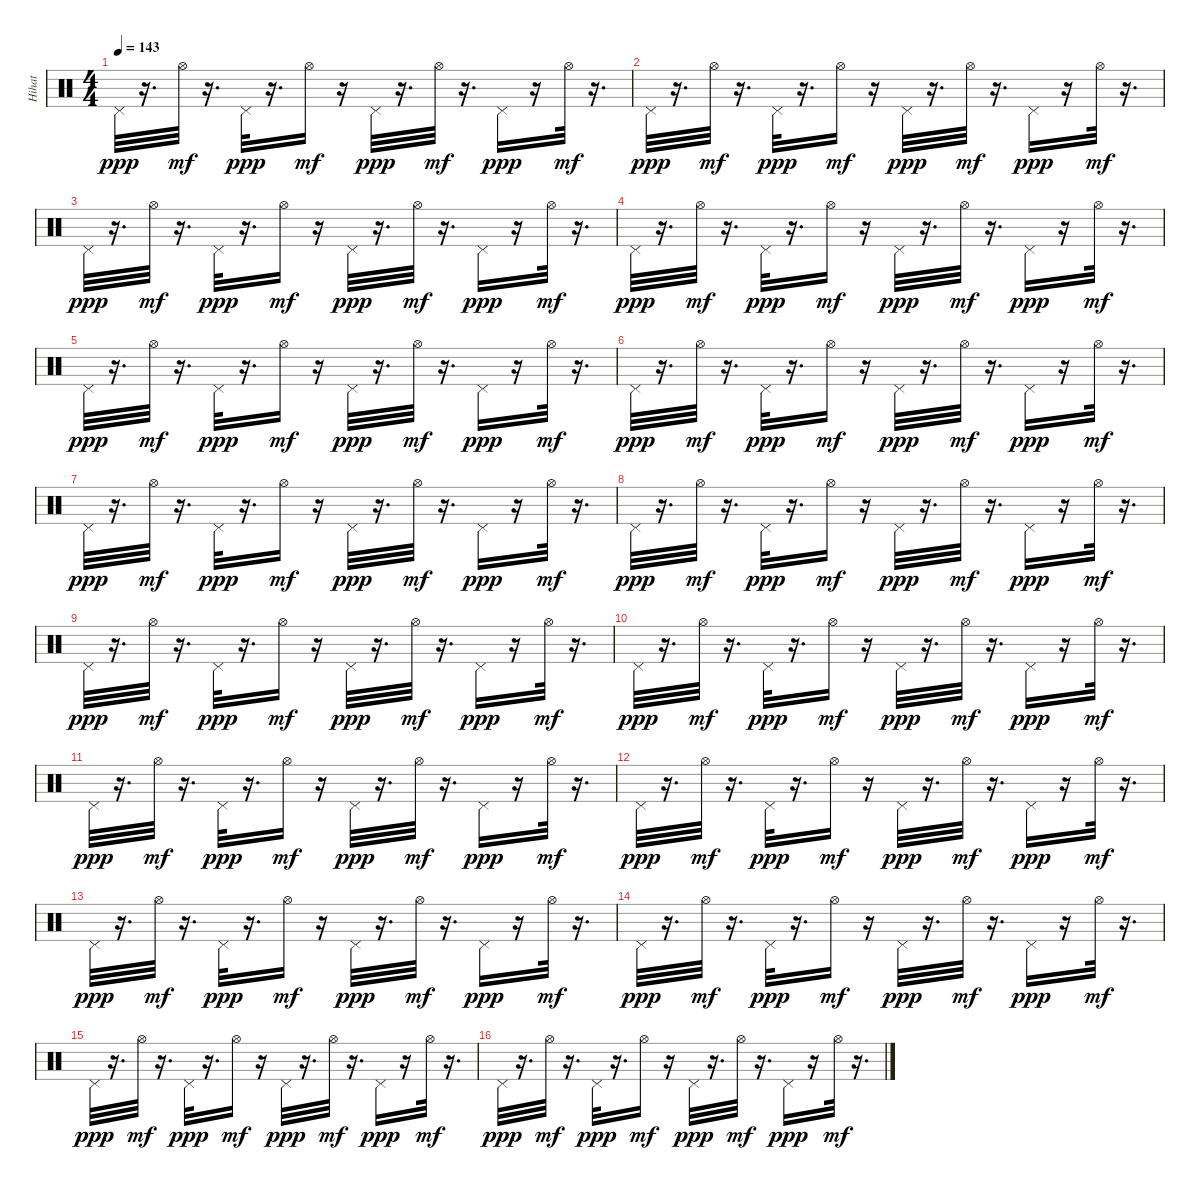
\track ("Hihat    " "Hihat    ") {instrument percussion}
\staff {score}
\articulation defaults
\ts (4 4)
\tempo 143
\clef neutral
\ks c "Pedal Hi-Hat (hit)".32{dy ppp}
r.16{d} "Hi-Hat (open)".32{dy mf} r.16{d} "Pedal Hi-Hat (hit)".32{dy ppp} r.16{d} "Hi-Hat (open)".16{dy mf} r.16 "Pedal Hi-Hat (hit)".32{dy ppp} r.16{d} "Hi-Hat (open)".32{dy mf} r.16{d} "Pedal Hi-Hat (hit)".16{dy ppp} r.16 "Hi-Hat (open)".32{dy mf} r.16{d} |
"Pedal Hi-Hat (hit)".32{dy ppp} r.16{d} "Hi-Hat (open)".32{dy mf} r.16{d} "Pedal Hi-Hat (hit)".32{dy ppp} r.16{d} "Hi-Hat (open)".16{dy mf} r.16 "Pedal Hi-Hat (hit)".32{dy ppp} r.16{d} "Hi-Hat (open)".32{dy mf} r.16{d} "Pedal Hi-Hat (hit)".16{dy ppp} r.16 "Hi-Hat (open)".32{dy mf} r.16{d} |
"Pedal Hi-Hat (hit)".32{dy ppp} r.16{d} "Hi-Hat (open)".32{dy mf} r.16{d} "Pedal Hi-Hat (hit)".32{dy ppp} r.16{d} "Hi-Hat (open)".16{dy mf} r.16 "Pedal Hi-Hat (hit)".32{dy ppp} r.16{d} "Hi-Hat (open)".32{dy mf} r.16{d} "Pedal Hi-Hat (hit)".16{dy ppp} r.16 "Hi-Hat (open)".32{dy mf} r.16{d} |
"Pedal Hi-Hat (hit)".32{dy ppp} r.16{d} "Hi-Hat (open)".32{dy mf} r.16{d} "Pedal Hi-Hat (hit)".32{dy ppp} r.16{d} "Hi-Hat (open)".16{dy mf} r.16 "Pedal Hi-Hat (hit)".32{dy ppp} r.16{d} "Hi-Hat (open)".32{dy mf} r.16{d} "Pedal Hi-Hat (hit)".16{dy ppp} r.16 "Hi-Hat (open)".32{dy mf} r.16{d} |
"Pedal Hi-Hat (hit)".32{dy ppp} r.16{d} "Hi-Hat (open)".32{dy mf} r.16{d} "Pedal Hi-Hat (hit)".32{dy ppp} r.16{d} "Hi-Hat (open)".16{dy mf} r.16 "Pedal Hi-Hat (hit)".32{dy ppp} r.16{d} "Hi-Hat (open)".32{dy mf} r.16{d} "Pedal Hi-Hat (hit)".16{dy ppp} r.16 "Hi-Hat (open)".32{dy mf} r.16{d} |
"Pedal Hi-Hat (hit)".32{dy ppp} r.16{d} "Hi-Hat (open)".32{dy mf} r.16{d} "Pedal Hi-Hat (hit)".32{dy ppp} r.16{d} "Hi-Hat (open)".16{dy mf} r.16 "Pedal Hi-Hat (hit)".32{dy ppp} r.16{d} "Hi-Hat (open)".32{dy mf} r.16{d} "Pedal Hi-Hat (hit)".16{dy ppp} r.16 "Hi-Hat (open)".32{dy mf} r.16{d} |
"Pedal Hi-Hat (hit)".32{dy ppp} r.16{d} "Hi-Hat (open)".32{dy mf} r.16{d} "Pedal Hi-Hat (hit)".32{dy ppp} r.16{d} "Hi-Hat (open)".16{dy mf} r.16 "Pedal Hi-Hat (hit)".32{dy ppp} r.16{d} "Hi-Hat (open)".32{dy mf} r.16{d} "Pedal Hi-Hat (hit)".16{dy ppp} r.16 "Hi-Hat (open)".32{dy mf} r.16{d} |
"Pedal Hi-Hat (hit)".32{dy ppp} r.16{d} "Hi-Hat (open)".32{dy mf} r.16{d} "Pedal Hi-Hat (hit)".32{dy ppp} r.16{d} "Hi-Hat (open)".16{dy mf} r.16 "Pedal Hi-Hat (hit)".32{dy ppp} r.16{d} "Hi-Hat (open)".32{dy mf} r.16{d} "Pedal Hi-Hat (hit)".16{dy ppp} r.16 "Hi-Hat (open)".32{dy mf} r.16{d} |
"Pedal Hi-Hat (hit)".32{dy ppp} r.16{d} "Hi-Hat (open)".32{dy mf} r.16{d} "Pedal Hi-Hat (hit)".32{dy ppp} r.16{d} "Hi-Hat (open)".16{dy mf} r.16 "Pedal Hi-Hat (hit)".32{dy ppp} r.16{d} "Hi-Hat (open)".32{dy mf} r.16{d} "Pedal Hi-Hat (hit)".16{dy ppp} r.16 "Hi-Hat (open)".32{dy mf} r.16{d} |
"Pedal Hi-Hat (hit)".32{dy ppp} r.16{d} "Hi-Hat (open)".32{dy mf} r.16{d} "Pedal Hi-Hat (hit)".32{dy ppp} r.16{d} "Hi-Hat (open)".16{dy mf} r.16 "Pedal Hi-Hat (hit)".32{dy ppp} r.16{d} "Hi-Hat (open)".32{dy mf} r.16{d} "Pedal Hi-Hat (hit)".16{dy ppp} r.16 "Hi-Hat (open)".32{dy mf} r.16{d} |
"Pedal Hi-Hat (hit)".32{dy ppp} r.16{d} "Hi-Hat (open)".32{dy mf} r.16{d} "Pedal Hi-Hat (hit)".32{dy ppp} r.16{d} "Hi-Hat (open)".16{dy mf} r.16 "Pedal Hi-Hat (hit)".32{dy ppp} r.16{d} "Hi-Hat (open)".32{dy mf} r.16{d} "Pedal Hi-Hat (hit)".16{dy ppp} r.16 "Hi-Hat (open)".32{dy mf} r.16{d} |
"Pedal Hi-Hat (hit)".32{dy ppp} r.16{d} "Hi-Hat (open)".32{dy mf} r.16{d} "Pedal Hi-Hat (hit)".32{dy ppp} r.16{d} "Hi-Hat (open)".16{dy mf} r.16 "Pedal Hi-Hat (hit)".32{dy ppp} r.16{d} "Hi-Hat (open)".32{dy mf} r.16{d} "Pedal Hi-Hat (hit)".16{dy ppp} r.16 "Hi-Hat (open)".32{dy mf} r.16{d} |
"Pedal Hi-Hat (hit)".32{dy ppp} r.16{d} "Hi-Hat (open)".32{dy mf} r.16{d} "Pedal Hi-Hat (hit)".32{dy ppp} r.16{d} "Hi-Hat (open)".16{dy mf} r.16 "Pedal Hi-Hat (hit)".32{dy ppp} r.16{d} "Hi-Hat (open)".32{dy mf} r.16{d} "Pedal Hi-Hat (hit)".16{dy ppp} r.16 "Hi-Hat (open)".32{dy mf} r.16{d} |
"Pedal Hi-Hat (hit)".32{dy ppp} r.16{d} "Hi-Hat (open)".32{dy mf} r.16{d} "Pedal Hi-Hat (hit)".32{dy ppp} r.16{d} "Hi-Hat (open)".16{dy mf} r.16 "Pedal Hi-Hat (hit)".32{dy ppp} r.16{d} "Hi-Hat (open)".32{dy mf} r.16{d} "Pedal Hi-Hat (hit)".16{dy ppp} r.16 "Hi-Hat (open)".32{dy mf} r.16{d} |
"Pedal Hi-Hat (hit)".32{dy ppp} r.16{d} "Hi-Hat (open)".32{dy mf} r.16{d} "Pedal Hi-Hat (hit)".32{dy ppp} r.16{d} "Hi-Hat (open)".16{dy mf} r.16 "Pedal Hi-Hat (hit)".32{dy ppp} r.16{d} "Hi-Hat (open)".32{dy mf} r.16{d} "Pedal Hi-Hat (hit)".16{dy ppp} r.16 "Hi-Hat (open)".32{dy mf} r.16{d} |
"Pedal Hi-Hat (hit)".32{dy ppp} r.16{d} "Hi-Hat (open)".32{dy mf} r.16{d} "Pedal Hi-Hat (hit)".32{dy ppp} r.16{d} "Hi-Hat (open)".16{dy mf} r.16 "Pedal Hi-Hat (hit)".32{dy ppp} r.16{d} "Hi-Hat (open)".32{dy mf} r.16{d} "Pedal Hi-Hat (hit)".16{dy ppp} r.16 "Hi-Hat (open)".32{dy mf} r.16{d}
